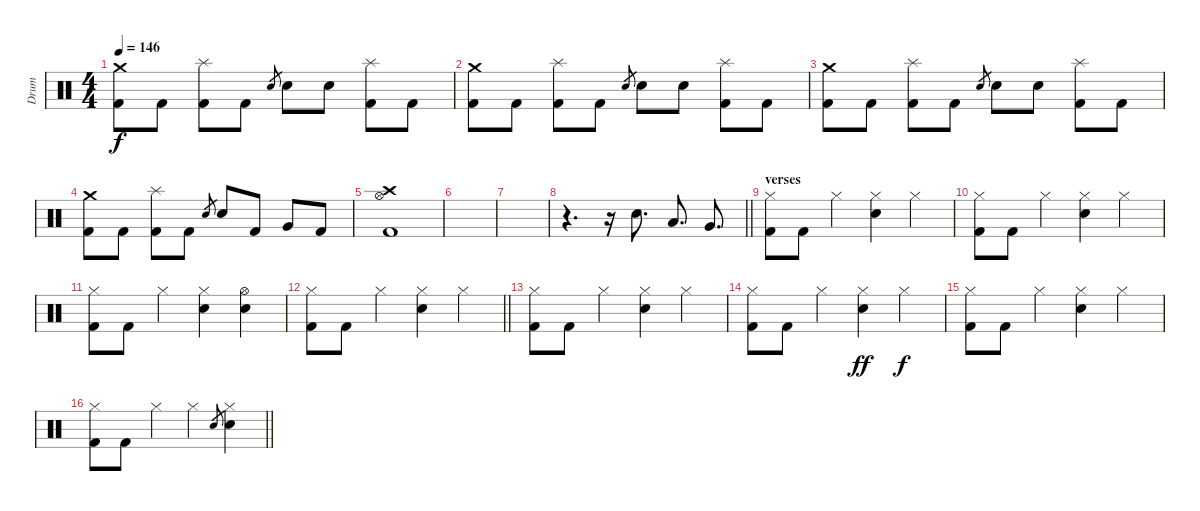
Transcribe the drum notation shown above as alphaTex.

\track ("Drum" "Drum") {instrument percussion}
\staff {score}
\articulation defaults
\ts (4 4)
\tempo 146
\clef neutral
\ks c
("Crash medium (hit)" "Kick (hit) 2").8{dy f} "Kick (hit) 2".8 ("Splash (hit)" "Kick (hit) 2").8 "Kick (hit) 2".8 "Electric Snare (hit)".8{gr} "Electric Snare (hit)".8 "Electric Snare (hit)".8 ("Splash (hit)" "Kick (hit) 2").8 "Kick (hit) 2".8 |
("Crash medium (hit)" "Kick (hit) 2").8 "Kick (hit) 2".8 ("Splash (hit)" "Kick (hit) 2").8 "Kick (hit) 2".8 "Electric Snare (hit)".8{gr} "Electric Snare (hit)".8 "Electric Snare (hit)".8 ("Splash (hit)" "Kick (hit) 2").8 "Kick (hit) 2".8 |
("Crash medium (hit)" "Kick (hit) 2").8 "Kick (hit) 2".8 ("Splash (hit)" "Kick (hit) 2").8 "Kick (hit) 2".8 "Electric Snare (hit)".8{gr} "Electric Snare (hit)".8 "Electric Snare (hit)".8 ("Splash (hit)" "Kick (hit) 2").8 "Kick (hit) 2".8 |
("Crash medium (hit)" "Kick (hit) 2").8 "Kick (hit) 2".8 ("Splash (hit)" "Kick (hit) 2").8 "Kick (hit) 2".8 "Electric Snare (hit)".8{gr} "Electric Snare (hit)".8 "Kick (hit) 2".8 "Very Low Tom (hit)".8 "Kick (hit) 2".8 |
("Crash high (hit)" "Hi-Hat (open)" "Kick (hit) 2").1 |
|
|
\barLineRight lightlight
r.4{d} r.16 "Electric Snare (hit)".8{d} "Low Tom (hit)".8{d} "Very Low Tom (hit)".8{d} |
\section ("" "verses")
("Hi-Hat (closed)" "Kick (hit) 2").8 "Kick (hit) 2".8 "Hi-Hat (closed)".4 ("Hi-Hat (closed)" "Electric Snare (hit)").4 "Hi-Hat (closed)".4 |
("Hi-Hat (closed)" "Kick (hit) 2").8 "Kick (hit) 2".8 "Hi-Hat (closed)".4 ("Hi-Hat (closed)" "Electric Snare (hit)").4 "Hi-Hat (closed)".4 |
("Hi-Hat (closed)" "Kick (hit) 2").8 "Kick (hit) 2".8 "Hi-Hat (closed)".4 ("Hi-Hat (closed)" "Electric Snare (hit)").4 ("Hi-Hat (open)" "Electric Snare (hit)").4 |
\barLineRight lightlight
("Hi-Hat (closed)" "Kick (hit) 2").8 "Kick (hit) 2".8 "Hi-Hat (closed)".4 ("Hi-Hat (closed)" "Electric Snare (hit)").4 "Hi-Hat (closed)".4 |
("Hi-Hat (closed)" "Kick (hit) 2").8 "Kick (hit) 2".8 "Hi-Hat (closed)".4 ("Hi-Hat (closed)" "Electric Snare (hit)").4 "Hi-Hat (closed)".4 |
("Hi-Hat (closed)" "Kick (hit) 2").8 "Kick (hit) 2".8 "Hi-Hat (closed)".4 ("Hi-Hat (closed)" "Electric Snare (hit)").4{dy ff} "Hi-Hat (closed)".4{dy f} |
("Hi-Hat (closed)" "Kick (hit) 2").8 "Kick (hit) 2".8 "Hi-Hat (closed)".4 ("Hi-Hat (closed)" "Electric Snare (hit)").4 "Hi-Hat (closed)".4 |
\barLineRight lightlight
("Hi-Hat (closed)" "Kick (hit) 2").8 "Kick (hit) 2".8 "Hi-Hat (closed)".4 "Hi-Hat (closed)".4 "Electric Snare (hit)".8{gr} ("Hi-Hat (closed)" "Electric Snare (hit)").4
